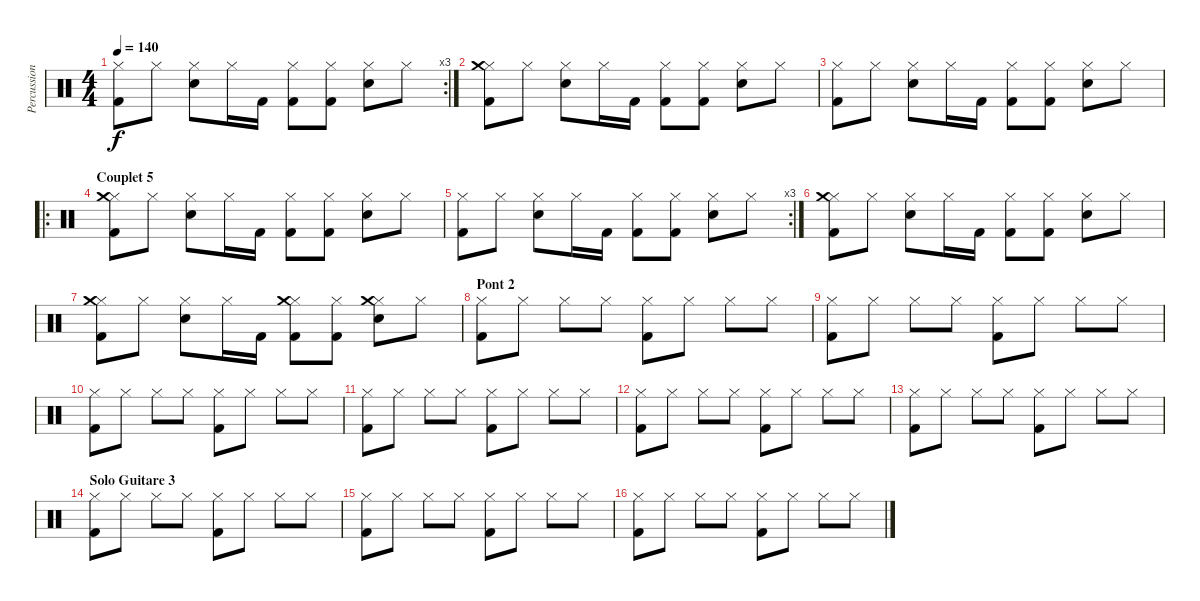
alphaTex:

\track ("Percussions" "Percussion") {instrument percussion}
\staff {score}
\articulation defaults
\rc 3
\ts (4 4)
\tempo 140
\clef neutral
\ks c
("Hi-Hat (closed)" "Kick (hit) 2").8{dy f} "Hi-Hat (closed)".8 ("Hi-Hat (closed)" "Electric Snare (hit)").8 "Hi-Hat (closed)".16 "Kick (hit) 2".16 ("Hi-Hat (closed)" "Kick (hit) 2").8 ("Hi-Hat (closed)" "Kick (hit) 2").8 ("Hi-Hat (closed)" "Electric Snare (hit)").8 "Hi-Hat (closed)".8 |
("Hi-Hat (closed)" "Crash medium (hit)" "Kick (hit) 2").8 "Hi-Hat (closed)".8 ("Hi-Hat (closed)" "Electric Snare (hit)").8 "Hi-Hat (closed)".16 "Kick (hit) 2".16 ("Hi-Hat (closed)" "Kick (hit) 2").8 ("Hi-Hat (closed)" "Kick (hit) 2").8 ("Hi-Hat (closed)" "Electric Snare (hit)").8 "Hi-Hat (closed)".8 |
("Hi-Hat (closed)" "Kick (hit) 2").8 "Hi-Hat (closed)".8 ("Hi-Hat (closed)" "Electric Snare (hit)").8 "Hi-Hat (closed)".16 "Kick (hit) 2".16 ("Hi-Hat (closed)" "Kick (hit) 2").8 ("Hi-Hat (closed)" "Kick (hit) 2").8 ("Hi-Hat (closed)" "Electric Snare (hit)").8 "Hi-Hat (closed)".8 |
\ro
\section ("" "Couplet 5")
("Hi-Hat (closed)" "Crash medium (hit)" "Kick (hit) 2").8 "Hi-Hat (closed)".8 ("Hi-Hat (closed)" "Electric Snare (hit)").8 "Hi-Hat (closed)".16 "Kick (hit) 2".16 ("Hi-Hat (closed)" "Kick (hit) 2").8 ("Hi-Hat (closed)" "Kick (hit) 2").8 ("Hi-Hat (closed)" "Electric Snare (hit)").8 "Hi-Hat (closed)".8 |
\rc 3
("Hi-Hat (closed)" "Kick (hit) 2").8 "Hi-Hat (closed)".8 ("Hi-Hat (closed)" "Electric Snare (hit)").8 "Hi-Hat (closed)".16 "Kick (hit) 2".16 ("Hi-Hat (closed)" "Kick (hit) 2").8 ("Hi-Hat (closed)" "Kick (hit) 2").8 ("Hi-Hat (closed)" "Electric Snare (hit)").8 "Hi-Hat (closed)".8 |
("Hi-Hat (closed)" "Crash medium (hit)" "Kick (hit) 2").8 "Hi-Hat (closed)".8 ("Hi-Hat (closed)" "Electric Snare (hit)").8 "Hi-Hat (closed)".16 "Kick (hit) 2".16 ("Hi-Hat (closed)" "Kick (hit) 2").8 ("Hi-Hat (closed)" "Kick (hit) 2").8 ("Hi-Hat (closed)" "Electric Snare (hit)").8 "Hi-Hat (closed)".8 |
("Hi-Hat (closed)" "Crash medium (hit)" "Kick (hit) 2").8 "Hi-Hat (closed)".8 ("Hi-Hat (closed)" "Electric Snare (hit)").8 "Hi-Hat (closed)".16 "Kick (hit) 2".16 ("Hi-Hat (closed)" "Crash medium (hit)" "Kick (hit) 2").8 ("Hi-Hat (closed)" "Kick (hit) 2").8 ("Hi-Hat (closed)" "Crash medium (hit)" "Electric Snare (hit)").8 "Hi-Hat (closed)".8 |
\section ("" "Pont 2")
("Hi-Hat (closed)" "Kick (hit) 2").8 "Hi-Hat (closed)".8 "Hi-Hat (closed)".8 "Hi-Hat (closed)".8 ("Hi-Hat (closed)" "Kick (hit) 2").8 "Hi-Hat (closed)".8 "Hi-Hat (closed)".8 "Hi-Hat (closed)".8 |
("Hi-Hat (closed)" "Kick (hit) 2").8 "Hi-Hat (closed)".8 "Hi-Hat (closed)".8 "Hi-Hat (closed)".8 ("Hi-Hat (closed)" "Kick (hit) 2").8 "Hi-Hat (closed)".8 "Hi-Hat (closed)".8 "Hi-Hat (closed)".8 |
("Hi-Hat (closed)" "Kick (hit) 2").8 "Hi-Hat (closed)".8 "Hi-Hat (closed)".8 "Hi-Hat (closed)".8 ("Hi-Hat (closed)" "Kick (hit) 2").8 "Hi-Hat (closed)".8 "Hi-Hat (closed)".8 "Hi-Hat (closed)".8 |
("Hi-Hat (closed)" "Kick (hit) 2").8 "Hi-Hat (closed)".8 "Hi-Hat (closed)".8 "Hi-Hat (closed)".8 ("Hi-Hat (closed)" "Kick (hit) 2").8 "Hi-Hat (closed)".8 "Hi-Hat (closed)".8 "Hi-Hat (closed)".8 |
("Hi-Hat (closed)" "Kick (hit) 2").8 "Hi-Hat (closed)".8 "Hi-Hat (closed)".8 "Hi-Hat (closed)".8 ("Hi-Hat (closed)" "Kick (hit) 2").8 "Hi-Hat (closed)".8 "Hi-Hat (closed)".8 "Hi-Hat (closed)".8 |
("Hi-Hat (closed)" "Kick (hit) 2").8 "Hi-Hat (closed)".8 "Hi-Hat (closed)".8 "Hi-Hat (closed)".8 ("Hi-Hat (closed)" "Kick (hit) 2").8 "Hi-Hat (closed)".8 "Hi-Hat (closed)".8 "Hi-Hat (closed)".8 |
\section ("" "Solo Guitare 3")
("Hi-Hat (closed)" "Kick (hit) 2").8 "Hi-Hat (closed)".8 "Hi-Hat (closed)".8 "Hi-Hat (closed)".8 ("Hi-Hat (closed)" "Kick (hit) 2").8 "Hi-Hat (closed)".8 "Hi-Hat (closed)".8 "Hi-Hat (closed)".8 |
("Hi-Hat (closed)" "Kick (hit) 2").8 "Hi-Hat (closed)".8 "Hi-Hat (closed)".8 "Hi-Hat (closed)".8 ("Hi-Hat (closed)" "Kick (hit) 2").8 "Hi-Hat (closed)".8 "Hi-Hat (closed)".8 "Hi-Hat (closed)".8 |
("Hi-Hat (closed)" "Kick (hit) 2").8 "Hi-Hat (closed)".8 "Hi-Hat (closed)".8 "Hi-Hat (closed)".8 ("Hi-Hat (closed)" "Kick (hit) 2").8 "Hi-Hat (closed)".8 "Hi-Hat (closed)".8 "Hi-Hat (closed)".8
